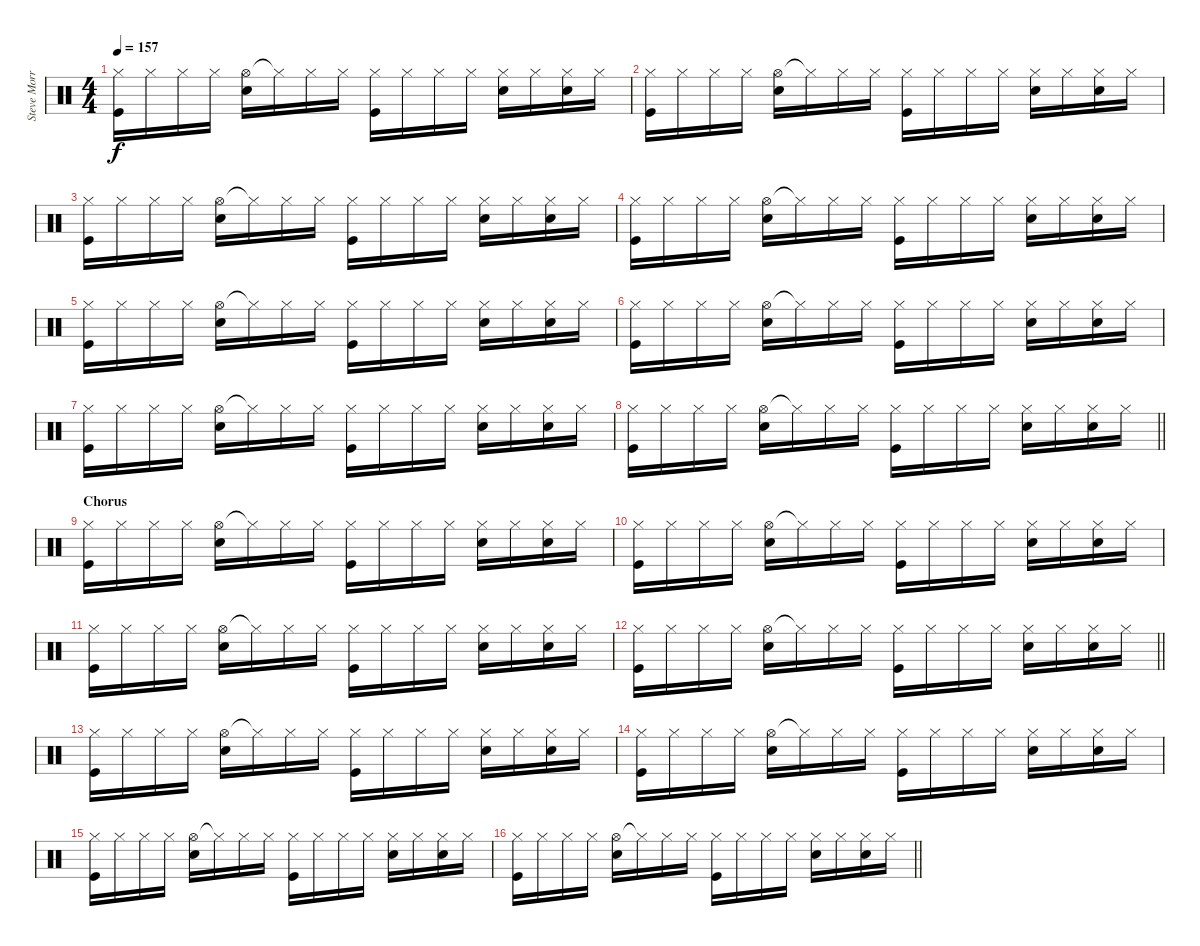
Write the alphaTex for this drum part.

\track ("Steve Morris" "Steve Morr") {instrument percussion}
\staff {score}
\articulation defaults
\ts (4 4)
\tempo 157
\clef neutral
\ks c
("Hi-Hat (closed)" "Kick (hit)").16{dy f} "Hi-Hat (closed)".16 "Hi-Hat (closed)".16 "Hi-Hat (closed)".16 ("Hi-Hat (open)" "Electric Snare (hit)").16 "Hi-Hat (closed)"{t}.16 "Hi-Hat (closed)".16 "Hi-Hat (closed)".16 ("Hi-Hat (closed)" "Kick (hit)").16 "Hi-Hat (closed)".16 "Hi-Hat (closed)".16 "Hi-Hat (closed)".16 ("Hi-Hat (closed)" "Electric Snare (hit)").16 "Hi-Hat (closed)".16 ("Hi-Hat (closed)" "Electric Snare (hit)").16 "Hi-Hat (closed)".16 |
("Hi-Hat (closed)" "Kick (hit)").16 "Hi-Hat (closed)".16 "Hi-Hat (closed)".16 "Hi-Hat (closed)".16 ("Hi-Hat (open)" "Electric Snare (hit)").16 "Hi-Hat (closed)"{t}.16 "Hi-Hat (closed)".16 "Hi-Hat (closed)".16 ("Hi-Hat (closed)" "Kick (hit)").16 "Hi-Hat (closed)".16 "Hi-Hat (closed)".16 "Hi-Hat (closed)".16 ("Hi-Hat (closed)" "Electric Snare (hit)").16 "Hi-Hat (closed)".16 ("Hi-Hat (closed)" "Electric Snare (hit)").16 "Hi-Hat (closed)".16 |
("Hi-Hat (closed)" "Kick (hit)").16 "Hi-Hat (closed)".16 "Hi-Hat (closed)".16 "Hi-Hat (closed)".16 ("Hi-Hat (open)" "Electric Snare (hit)").16 "Hi-Hat (closed)"{t}.16 "Hi-Hat (closed)".16 "Hi-Hat (closed)".16 ("Hi-Hat (closed)" "Kick (hit)").16 "Hi-Hat (closed)".16 "Hi-Hat (closed)".16 "Hi-Hat (closed)".16 ("Hi-Hat (closed)" "Electric Snare (hit)").16 "Hi-Hat (closed)".16 ("Hi-Hat (closed)" "Electric Snare (hit)").16 "Hi-Hat (closed)".16 |
("Hi-Hat (closed)" "Kick (hit)").16 "Hi-Hat (closed)".16 "Hi-Hat (closed)".16 "Hi-Hat (closed)".16 ("Hi-Hat (open)" "Electric Snare (hit)").16 "Hi-Hat (closed)"{t}.16 "Hi-Hat (closed)".16 "Hi-Hat (closed)".16 ("Hi-Hat (closed)" "Kick (hit)").16 "Hi-Hat (closed)".16 "Hi-Hat (closed)".16 "Hi-Hat (closed)".16 ("Hi-Hat (closed)" "Electric Snare (hit)").16 "Hi-Hat (closed)".16 ("Hi-Hat (closed)" "Electric Snare (hit)").16 "Hi-Hat (closed)".16 |
("Hi-Hat (closed)" "Kick (hit)").16 "Hi-Hat (closed)".16 "Hi-Hat (closed)".16 "Hi-Hat (closed)".16 ("Hi-Hat (open)" "Electric Snare (hit)").16 "Hi-Hat (closed)"{t}.16 "Hi-Hat (closed)".16 "Hi-Hat (closed)".16 ("Hi-Hat (closed)" "Kick (hit)").16 "Hi-Hat (closed)".16 "Hi-Hat (closed)".16 "Hi-Hat (closed)".16 ("Hi-Hat (closed)" "Electric Snare (hit)").16 "Hi-Hat (closed)".16 ("Hi-Hat (closed)" "Electric Snare (hit)").16 "Hi-Hat (closed)".16 |
("Hi-Hat (closed)" "Kick (hit)").16 "Hi-Hat (closed)".16 "Hi-Hat (closed)".16 "Hi-Hat (closed)".16 ("Hi-Hat (open)" "Electric Snare (hit)").16 "Hi-Hat (closed)"{t}.16 "Hi-Hat (closed)".16 "Hi-Hat (closed)".16 ("Hi-Hat (closed)" "Kick (hit)").16 "Hi-Hat (closed)".16 "Hi-Hat (closed)".16 "Hi-Hat (closed)".16 ("Hi-Hat (closed)" "Electric Snare (hit)").16 "Hi-Hat (closed)".16 ("Hi-Hat (closed)" "Electric Snare (hit)").16 "Hi-Hat (closed)".16 |
("Hi-Hat (closed)" "Kick (hit)").16 "Hi-Hat (closed)".16 "Hi-Hat (closed)".16 "Hi-Hat (closed)".16 ("Hi-Hat (open)" "Electric Snare (hit)").16 "Hi-Hat (closed)"{t}.16 "Hi-Hat (closed)".16 "Hi-Hat (closed)".16 ("Hi-Hat (closed)" "Kick (hit)").16 "Hi-Hat (closed)".16 "Hi-Hat (closed)".16 "Hi-Hat (closed)".16 ("Hi-Hat (closed)" "Electric Snare (hit)").16 "Hi-Hat (closed)".16 ("Hi-Hat (closed)" "Electric Snare (hit)").16 "Hi-Hat (closed)".16 |
\barLineRight lightlight
("Hi-Hat (closed)" "Kick (hit)").16 "Hi-Hat (closed)".16 "Hi-Hat (closed)".16 "Hi-Hat (closed)".16 ("Hi-Hat (open)" "Electric Snare (hit)").16 "Hi-Hat (closed)"{t}.16 "Hi-Hat (closed)".16 "Hi-Hat (closed)".16 ("Hi-Hat (closed)" "Kick (hit)").16 "Hi-Hat (closed)".16 "Hi-Hat (closed)".16 "Hi-Hat (closed)".16 ("Hi-Hat (closed)" "Electric Snare (hit)").16 "Hi-Hat (closed)".16 ("Hi-Hat (closed)" "Electric Snare (hit)").16 "Hi-Hat (closed)".16 |
\section ("" "Chorus")
("Hi-Hat (closed)" "Kick (hit)").16 "Hi-Hat (closed)".16 "Hi-Hat (closed)".16 "Hi-Hat (closed)".16 ("Hi-Hat (open)" "Electric Snare (hit)").16 "Hi-Hat (closed)"{t}.16 "Hi-Hat (closed)".16 "Hi-Hat (closed)".16 ("Hi-Hat (closed)" "Kick (hit)").16 "Hi-Hat (closed)".16 "Hi-Hat (closed)".16 "Hi-Hat (closed)".16 ("Hi-Hat (closed)" "Electric Snare (hit)").16 "Hi-Hat (closed)".16 ("Hi-Hat (closed)" "Electric Snare (hit)").16 "Hi-Hat (closed)".16 |
("Hi-Hat (closed)" "Kick (hit)").16 "Hi-Hat (closed)".16 "Hi-Hat (closed)".16 "Hi-Hat (closed)".16 ("Hi-Hat (open)" "Electric Snare (hit)").16 "Hi-Hat (closed)"{t}.16 "Hi-Hat (closed)".16 "Hi-Hat (closed)".16 ("Hi-Hat (closed)" "Kick (hit)").16 "Hi-Hat (closed)".16 "Hi-Hat (closed)".16 "Hi-Hat (closed)".16 ("Hi-Hat (closed)" "Electric Snare (hit)").16 "Hi-Hat (closed)".16 ("Hi-Hat (closed)" "Electric Snare (hit)").16 "Hi-Hat (closed)".16 |
("Hi-Hat (closed)" "Kick (hit)").16 "Hi-Hat (closed)".16 "Hi-Hat (closed)".16 "Hi-Hat (closed)".16 ("Hi-Hat (open)" "Electric Snare (hit)").16 "Hi-Hat (closed)"{t}.16 "Hi-Hat (closed)".16 "Hi-Hat (closed)".16 ("Hi-Hat (closed)" "Kick (hit)").16 "Hi-Hat (closed)".16 "Hi-Hat (closed)".16 "Hi-Hat (closed)".16 ("Hi-Hat (closed)" "Electric Snare (hit)").16 "Hi-Hat (closed)".16 ("Hi-Hat (closed)" "Electric Snare (hit)").16 "Hi-Hat (closed)".16 |
\barLineRight lightlight
("Hi-Hat (closed)" "Kick (hit)").16 "Hi-Hat (closed)".16 "Hi-Hat (closed)".16 "Hi-Hat (closed)".16 ("Hi-Hat (open)" "Electric Snare (hit)").16 "Hi-Hat (closed)"{t}.16 "Hi-Hat (closed)".16 "Hi-Hat (closed)".16 ("Hi-Hat (closed)" "Kick (hit)").16 "Hi-Hat (closed)".16 "Hi-Hat (closed)".16 "Hi-Hat (closed)".16 ("Hi-Hat (closed)" "Electric Snare (hit)").16 "Hi-Hat (closed)".16 ("Hi-Hat (closed)" "Electric Snare (hit)").16 "Hi-Hat (closed)".16 |
("Hi-Hat (closed)" "Kick (hit)").16 "Hi-Hat (closed)".16 "Hi-Hat (closed)".16 "Hi-Hat (closed)".16 ("Hi-Hat (open)" "Electric Snare (hit)").16 "Hi-Hat (closed)"{t}.16 "Hi-Hat (closed)".16 "Hi-Hat (closed)".16 ("Hi-Hat (closed)" "Kick (hit)").16 "Hi-Hat (closed)".16 "Hi-Hat (closed)".16 "Hi-Hat (closed)".16 ("Hi-Hat (closed)" "Electric Snare (hit)").16 "Hi-Hat (closed)".16 ("Hi-Hat (closed)" "Electric Snare (hit)").16 "Hi-Hat (closed)".16 |
("Hi-Hat (closed)" "Kick (hit)").16 "Hi-Hat (closed)".16 "Hi-Hat (closed)".16 "Hi-Hat (closed)".16 ("Hi-Hat (open)" "Electric Snare (hit)").16 "Hi-Hat (closed)"{t}.16 "Hi-Hat (closed)".16 "Hi-Hat (closed)".16 ("Hi-Hat (closed)" "Kick (hit)").16 "Hi-Hat (closed)".16 "Hi-Hat (closed)".16 "Hi-Hat (closed)".16 ("Hi-Hat (closed)" "Electric Snare (hit)").16 "Hi-Hat (closed)".16 ("Hi-Hat (closed)" "Electric Snare (hit)").16 "Hi-Hat (closed)".16 |
("Hi-Hat (closed)" "Kick (hit)").16 "Hi-Hat (closed)".16 "Hi-Hat (closed)".16 "Hi-Hat (closed)".16 ("Hi-Hat (open)" "Electric Snare (hit)").16 "Hi-Hat (closed)"{t}.16 "Hi-Hat (closed)".16 "Hi-Hat (closed)".16 ("Hi-Hat (closed)" "Kick (hit)").16 "Hi-Hat (closed)".16 "Hi-Hat (closed)".16 "Hi-Hat (closed)".16 ("Hi-Hat (closed)" "Electric Snare (hit)").16 "Hi-Hat (closed)".16 ("Hi-Hat (closed)" "Electric Snare (hit)").16 "Hi-Hat (closed)".16 |
\barLineRight lightlight
("Hi-Hat (closed)" "Kick (hit)").16 "Hi-Hat (closed)".16 "Hi-Hat (closed)".16 "Hi-Hat (closed)".16 ("Hi-Hat (open)" "Electric Snare (hit)").16 "Hi-Hat (closed)"{t}.16 "Hi-Hat (closed)".16 "Hi-Hat (closed)".16 ("Hi-Hat (closed)" "Kick (hit)").16 "Hi-Hat (closed)".16 "Hi-Hat (closed)".16 "Hi-Hat (closed)".16 ("Hi-Hat (closed)" "Electric Snare (hit)").16 "Hi-Hat (closed)".16 ("Hi-Hat (closed)" "Electric Snare (hit)").16 "Hi-Hat (closed)".16
